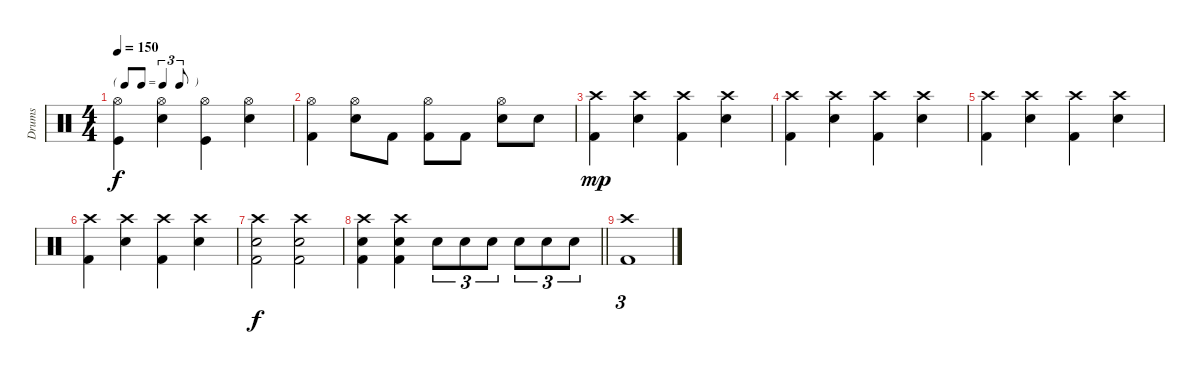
\track ("Drums" "Drums") {instrument percussion}
\staff {score}
\articulation defaults
\ts (4 4)
\tf triplet8th
\tempo 150
\clef neutral
\ks c
("Hi-Hat (open)" "Kick (hit)").4{dy f} ("Hi-Hat (open)" "Snare (hit) 2").4 ("Hi-Hat (open)" "Kick (hit)").4 ("Hi-Hat (open)" "Snare (hit) 2").4 |
("Hi-Hat (open)" "Kick (hit) 2").4 ("Hi-Hat (open)" "Snare (hit) 2").8 "Kick (hit) 2".8 ("Hi-Hat (open)" "Kick (hit) 2").8 "Kick (hit) 2".8 ("Hi-Hat (open)" "Snare (hit) 2").8 "Snare (hit) 2".8 |
("Crash high (hit)" "Kick (hit) 2").4{dy mp} ("Crash high (hit)" "Snare (hit) 2").4 ("Crash high (hit)" "Kick (hit) 2").4 ("Crash high (hit)" "Snare (hit) 2").4 |
("Crash high (hit)" "Kick (hit) 2").4 ("Crash high (hit)" "Snare (hit) 2").4 ("Crash high (hit)" "Kick (hit) 2").4 ("Crash high (hit)" "Snare (hit) 2").4 |
("Crash high (hit)" "Kick (hit) 2").4 ("Crash high (hit)" "Snare (hit) 2").4 ("Crash high (hit)" "Kick (hit) 2").4 ("Crash high (hit)" "Snare (hit) 2").4 |
("Crash high (hit)" "Kick (hit) 2").4 ("Crash high (hit)" "Snare (hit) 2").4 ("Crash high (hit)" "Kick (hit) 2").4 ("Crash high (hit)" "Snare (hit) 2").4 |
("Crash high (hit)" "Snare (hit) 2" "Kick (hit) 2").2{dy f} ("Crash high (hit)" "Snare (hit) 2" "Kick (hit) 2").2 |
\barLineRight lightlight
("Crash high (hit)" "Snare (hit) 2" "Kick (hit) 2").4 ("Crash high (hit)" "Snare (hit) 2" "Kick (hit) 2").4 "Snare (hit) 2".8{tu (3 2)} "Snare (hit) 2".8{tu (3 2)} "Snare (hit) 2".8{tu (3 2)} "Snare (hit) 2".8{tu (3 2)} "Snare (hit) 2".8{tu (3 2)} "Snare (hit) 2".8{tu (3 2)} |
("Crash high (hit)" "Kick (hit) 2").1{tu (3 2)}
